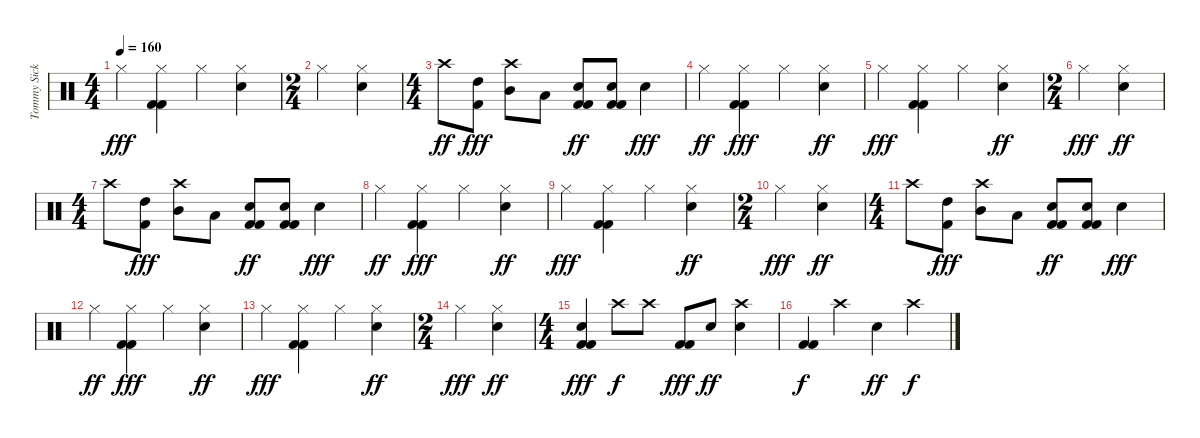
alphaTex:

\track ("Tommy Sickles" "Tommy Sick") {instrument percussion}
\staff {score}
\articulation defaults
\ts (4 4)
\tempo 160
\clef neutral
\ks c "Hi-Hat (closed)".4{dy fff}
("Hi-Hat (closed)" "Kick (hit) 2" "Kick (hit) 2").4 "Hi-Hat (closed)".4 ("Hi-Hat (closed)" "Electric Snare (hit)").4 |
\ts (2 4)
"Hi-Hat (closed)".4 ("Hi-Hat (closed)" "Electric Snare (hit)").4 |
\ts (4 4)
"Crash high (hit)".8{dy ff} ("High Tom (hit)" "Kick (hit) 2").8{dy fff} ("Crash high (hit)" "Mid Tom (hit)").8 "Low Tom (hit)".8 ("Kick (hit) 2" "Kick (hit) 2" "Electric Snare (hit)").8{dy ff} ("Kick (hit) 2" "Kick (hit) 2" "Electric Snare (hit)").8 "Electric Snare (hit)".4{dy fff} |
"Hi-Hat (closed)".4{dy ff} ("Hi-Hat (closed)" "Kick (hit) 2" "Kick (hit) 2").4{dy fff} "Hi-Hat (closed)".4 ("Hi-Hat (closed)" "Electric Snare (hit)").4{dy ff} |
"Hi-Hat (closed)".4{dy fff} ("Hi-Hat (closed)" "Kick (hit) 2" "Kick (hit) 2").4 "Hi-Hat (closed)".4 ("Hi-Hat (closed)" "Electric Snare (hit)").4{dy ff} |
\ts (2 4)
"Hi-Hat (closed)".4{dy fff} ("Hi-Hat (closed)" "Electric Snare (hit)").4{dy ff} |
\ts (4 4)
"Crash high (hit)".8 ("High Tom (hit)" "Kick (hit) 2").8{dy fff} ("Crash high (hit)" "Mid Tom (hit)").8 "Low Tom (hit)".8 ("Kick (hit) 2" "Kick (hit) 2" "Electric Snare (hit)").8{dy ff} ("Kick (hit) 2" "Kick (hit) 2" "Electric Snare (hit)").8 "Electric Snare (hit)".4{dy fff} |
"Hi-Hat (closed)".4{dy ff} ("Hi-Hat (closed)" "Kick (hit) 2" "Kick (hit) 2").4{dy fff} "Hi-Hat (closed)".4 ("Hi-Hat (closed)" "Electric Snare (hit)").4{dy ff} |
"Hi-Hat (closed)".4{dy fff} ("Hi-Hat (closed)" "Kick (hit) 2" "Kick (hit) 2").4 "Hi-Hat (closed)".4 ("Hi-Hat (closed)" "Electric Snare (hit)").4{dy ff} |
\ts (2 4)
"Hi-Hat (closed)".4{dy fff} ("Hi-Hat (closed)" "Electric Snare (hit)").4{dy ff} |
\ts (4 4)
"Crash high (hit)".8 ("High Tom (hit)" "Kick (hit) 2").8{dy fff} ("Crash high (hit)" "Mid Tom (hit)").8 "Low Tom (hit)".8 ("Kick (hit) 2" "Kick (hit) 2" "Electric Snare (hit)").8{dy ff} ("Kick (hit) 2" "Kick (hit) 2" "Electric Snare (hit)").8 "Electric Snare (hit)".4{dy fff} |
"Hi-Hat (closed)".4{dy ff} ("Hi-Hat (closed)" "Kick (hit) 2" "Kick (hit) 2").4{dy fff} "Hi-Hat (closed)".4 ("Hi-Hat (closed)" "Electric Snare (hit)").4{dy ff} |
"Hi-Hat (closed)".4{dy fff} ("Hi-Hat (closed)" "Kick (hit) 2" "Kick (hit) 2").4 "Hi-Hat (closed)".4 ("Hi-Hat (closed)" "Electric Snare (hit)").4{dy ff} |
\ts (2 4)
"Hi-Hat (closed)".4{dy fff} ("Hi-Hat (closed)" "Electric Snare (hit)").4{dy ff} |
\ts (4 4)
("Kick (hit) 2" "Kick (hit) 2" "Electric Snare (hit)").4{dy fff} "Crash high (hit)".8{dy f} "Crash high (hit)".8 ("Kick (hit) 2" "Kick (hit) 2").8{dy fff} "Electric Snare (hit)".8{dy ff} ("Crash high (hit)" "Electric Snare (hit)").4 |
("Kick (hit) 2" "Kick (hit) 2").4{dy f} "Crash high (hit)".4 "Electric Snare (hit)".4{dy ff} "Crash high (hit)".4{dy f}
